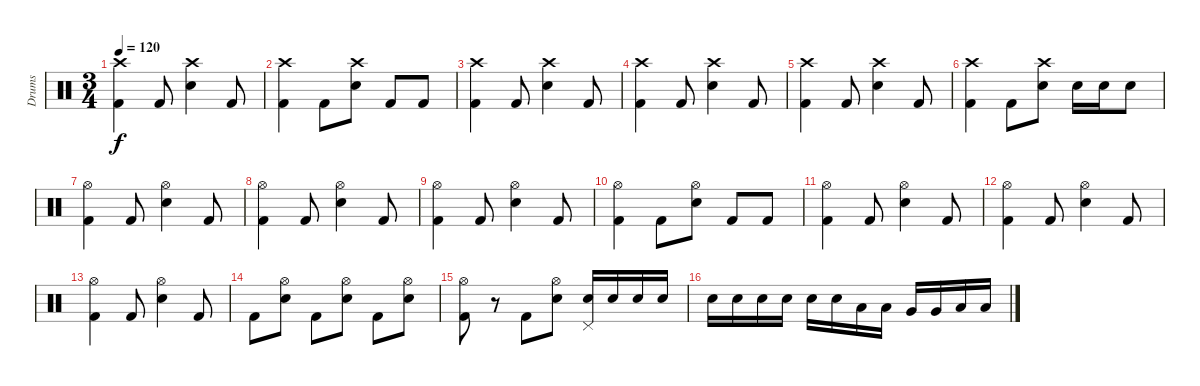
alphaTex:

\track ("Drums" "Drums") {instrument percussion}
\staff {score}
\articulation defaults
\ts (3 4)
\tempo 120
\clef neutral
\ks c
("Crash high (hit)" "Kick (hit) 2").4{dy f} "Kick (hit) 2".8 ("Crash high (hit)" "Snare (hit) 2").4 "Kick (hit) 2".8 |
("Crash high (hit)" "Kick (hit) 2").4 "Kick (hit) 2".8 ("Crash high (hit)" "Snare (hit) 2").8 "Kick (hit) 2".8 "Kick (hit) 2".8 |
("Crash high (hit)" "Kick (hit) 2").4 "Kick (hit) 2".8 ("Crash high (hit)" "Snare (hit) 2").4 "Kick (hit) 2".8 |
("Crash high (hit)" "Kick (hit) 2").4 "Kick (hit) 2".8 ("Crash high (hit)" "Snare (hit) 2").4 "Kick (hit) 2".8 |
("Crash high (hit)" "Kick (hit) 2").4 "Kick (hit) 2".8 ("Crash high (hit)" "Snare (hit) 2").4 "Kick (hit) 2".8 |
("Crash high (hit)" "Kick (hit) 2").4 "Kick (hit) 2".8 ("Crash high (hit)" "Snare (hit) 2").8 "Snare (hit) 2".16 "Snare (hit) 2".16 "Snare (hit) 2".8 |
("Hi-Hat (open)" "Kick (hit) 2").4 "Kick (hit) 2".8 ("Hi-Hat (open)" "Snare (hit) 2").4 "Kick (hit) 2".8 |
("Hi-Hat (open)" "Kick (hit) 2").4 "Kick (hit) 2".8 ("Hi-Hat (open)" "Snare (hit) 2").4 "Kick (hit) 2".8 |
("Hi-Hat (open)" "Kick (hit) 2").4 "Kick (hit) 2".8 ("Hi-Hat (open)" "Snare (hit) 2").4 "Kick (hit) 2".8 |
("Hi-Hat (open)" "Kick (hit) 2").4 "Kick (hit) 2".8 ("Hi-Hat (open)" "Snare (hit) 2").8 "Kick (hit) 2".8 "Kick (hit) 2".8 |
("Hi-Hat (open)" "Kick (hit) 2").4 "Kick (hit) 2".8 ("Hi-Hat (open)" "Snare (hit) 2").4 "Kick (hit) 2".8 |
("Hi-Hat (open)" "Kick (hit) 2").4 "Kick (hit) 2".8 ("Hi-Hat (open)" "Snare (hit) 2").4 "Kick (hit) 2".8 |
("Hi-Hat (open)" "Kick (hit) 2").4 "Kick (hit) 2".8 ("Hi-Hat (open)" "Snare (hit) 2").4 "Kick (hit) 2".8 |
"Kick (hit) 2".8 ("Hi-Hat (open)" "Snare (hit) 2").8 "Kick (hit) 2".8 ("Hi-Hat (open)" "Snare (hit) 2").8 "Kick (hit) 2".8 ("Hi-Hat (open)" "Snare (hit) 2").8 |
("Hi-Hat (open)" "Kick (hit) 2").8 r.8 "Kick (hit) 2".8 ("Hi-Hat (open)" "Snare (hit) 2").8 ("Pedal Hi-Hat (hit)" "Snare (hit) 2").16 "Snare (hit) 2".16 "Snare (hit) 2".16 "Snare (hit) 2".16 |
"Snare (hit) 2".16 "Snare (hit) 2".16 "Snare (hit) 2".16 "Snare (hit) 2".16 "Snare (hit) 2".16 "Snare (hit) 2".16 "Low Tom (hit)".16 "Low Tom (hit)".16 "Very Low Tom (hit)".16 "Very Low Tom (hit)".16 "Low Floor Tom (hit)".16 "Low Floor Tom (hit)".16
